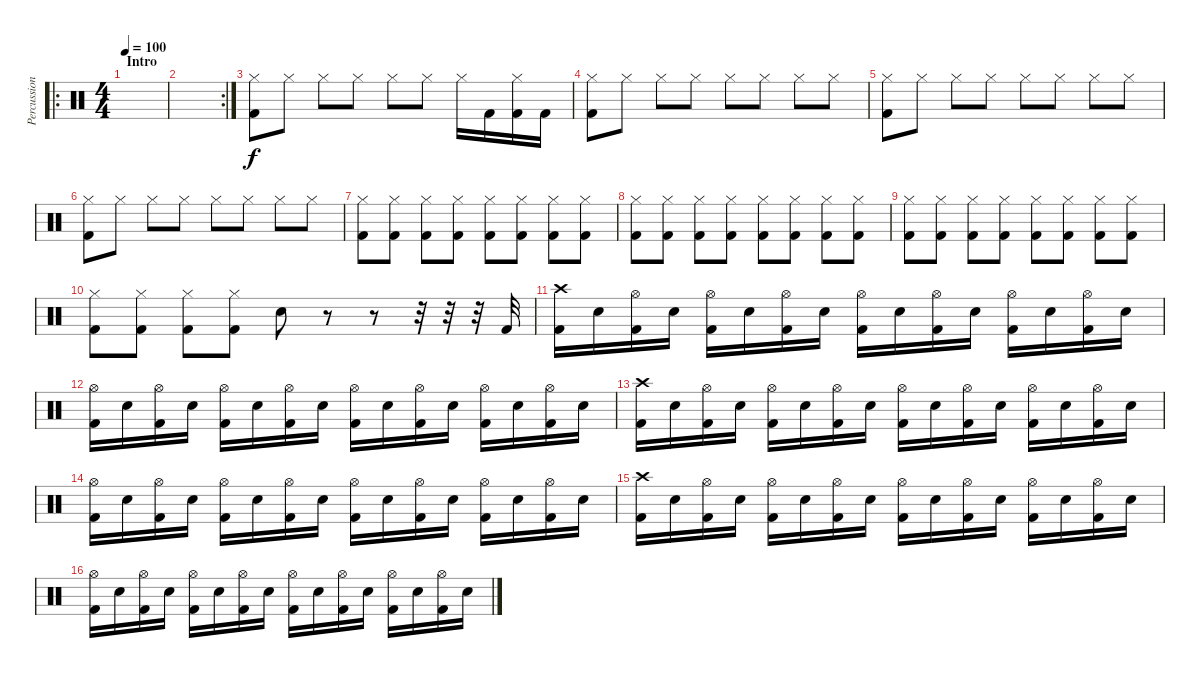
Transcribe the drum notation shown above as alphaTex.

\track ("Percussion" "Percussion") {instrument percussion}
\staff {score}
\articulation defaults
\ro
\ts (4 4)
\section ("" "Intro")
\tempo 100
\clef neutral
\ks c
|
\rc 2
|
("Hi-Hat (closed)" "Kick (hit) 2").8 "Hi-Hat (closed)".8 "Hi-Hat (closed)".8 "Hi-Hat (closed)".8 "Hi-Hat (closed)".8 "Hi-Hat (closed)".8 "Hi-Hat (closed)".16 "Kick (hit) 2".16 ("Hi-Hat (closed)" "Kick (hit) 2").16 "Kick (hit) 2".16 |
("Hi-Hat (closed)" "Kick (hit) 2").8 "Hi-Hat (closed)".8 "Hi-Hat (closed)".8 "Hi-Hat (closed)".8 "Hi-Hat (closed)".8 "Hi-Hat (closed)".8 "Hi-Hat (closed)".8 "Hi-Hat (closed)".8 |
("Hi-Hat (closed)" "Kick (hit) 2").8 "Hi-Hat (closed)".8 "Hi-Hat (closed)".8 "Hi-Hat (closed)".8 "Hi-Hat (closed)".8 "Hi-Hat (closed)".8 "Hi-Hat (closed)".8 "Hi-Hat (closed)".8 |
("Hi-Hat (closed)" "Kick (hit) 2").8 "Hi-Hat (closed)".8 "Hi-Hat (closed)".8 "Hi-Hat (closed)".8 "Hi-Hat (closed)".8 "Hi-Hat (closed)".8 "Hi-Hat (closed)".8 "Hi-Hat (closed)".8 |
("Hi-Hat (closed)" "Kick (hit) 2").8 ("Hi-Hat (closed)" "Kick (hit) 2").8 ("Hi-Hat (closed)" "Kick (hit) 2").8 ("Hi-Hat (closed)" "Kick (hit) 2").8 ("Hi-Hat (closed)" "Kick (hit) 2").8 ("Hi-Hat (closed)" "Kick (hit) 2").8 ("Hi-Hat (closed)" "Kick (hit) 2").8 ("Hi-Hat (closed)" "Kick (hit) 2").8 |
("Hi-Hat (closed)" "Kick (hit) 2").8 ("Hi-Hat (closed)" "Kick (hit) 2").8 ("Hi-Hat (closed)" "Kick (hit) 2").8 ("Hi-Hat (closed)" "Kick (hit) 2").8 ("Hi-Hat (closed)" "Kick (hit) 2").8 ("Hi-Hat (closed)" "Kick (hit) 2").8 ("Hi-Hat (closed)" "Kick (hit) 2").8 ("Hi-Hat (closed)" "Kick (hit) 2").8 |
("Hi-Hat (closed)" "Kick (hit) 2").8 ("Hi-Hat (closed)" "Kick (hit) 2").8 ("Hi-Hat (closed)" "Kick (hit) 2").8 ("Hi-Hat (closed)" "Kick (hit) 2").8 ("Hi-Hat (closed)" "Kick (hit) 2").8 ("Hi-Hat (closed)" "Kick (hit) 2").8 ("Hi-Hat (closed)" "Kick (hit) 2").8 ("Hi-Hat (closed)" "Kick (hit) 2").8 |
("Hi-Hat (closed)" "Kick (hit) 2").8 ("Hi-Hat (closed)" "Kick (hit) 2").8 ("Hi-Hat (closed)" "Kick (hit) 2").8 ("Hi-Hat (closed)" "Kick (hit) 2").8 "Snare (hit) 2".8 r.8 r.8 r.32 r.32 r.32 "Kick (hit) 2".32 |
("Crash high (hit)" "Kick (hit) 2").16 "Snare (hit) 2".16 ("Hi-Hat (open)" "Kick (hit) 2").16 "Snare (hit) 2".16 ("Hi-Hat (open)" "Kick (hit) 2").16 "Snare (hit) 2".16 ("Hi-Hat (open)" "Kick (hit) 2").16 "Snare (hit) 2".16 ("Hi-Hat (open)" "Kick (hit) 2").16 "Snare (hit) 2".16 ("Hi-Hat (open)" "Kick (hit) 2").16 "Snare (hit) 2".16 ("Hi-Hat (open)" "Kick (hit) 2").16 "Snare (hit) 2".16 ("Hi-Hat (open)" "Kick (hit) 2").16 "Snare (hit) 2".16 |
("Hi-Hat (open)" "Kick (hit) 2").16 "Snare (hit) 2".16 ("Hi-Hat (open)" "Kick (hit) 2").16 "Snare (hit) 2".16 ("Hi-Hat (open)" "Kick (hit) 2").16 "Snare (hit) 2".16 ("Hi-Hat (open)" "Kick (hit) 2").16 "Snare (hit) 2".16 ("Hi-Hat (open)" "Kick (hit) 2").16 "Snare (hit) 2".16 ("Hi-Hat (open)" "Kick (hit) 2").16 "Snare (hit) 2".16 ("Hi-Hat (open)" "Kick (hit) 2").16 "Snare (hit) 2".16 ("Hi-Hat (open)" "Kick (hit) 2").16 "Snare (hit) 2".16 |
("Crash high (hit)" "Kick (hit) 2").16 "Snare (hit) 2".16 ("Hi-Hat (open)" "Kick (hit) 2").16 "Snare (hit) 2".16 ("Hi-Hat (open)" "Kick (hit) 2").16 "Snare (hit) 2".16 ("Hi-Hat (open)" "Kick (hit) 2").16 "Snare (hit) 2".16 ("Hi-Hat (open)" "Kick (hit) 2").16 "Snare (hit) 2".16 ("Hi-Hat (open)" "Kick (hit) 2").16 "Snare (hit) 2".16 ("Hi-Hat (open)" "Kick (hit) 2").16 "Snare (hit) 2".16 ("Hi-Hat (open)" "Kick (hit) 2").16 "Snare (hit) 2".16 |
("Hi-Hat (open)" "Kick (hit) 2").16 "Snare (hit) 2".16 ("Hi-Hat (open)" "Kick (hit) 2").16 "Snare (hit) 2".16 ("Hi-Hat (open)" "Kick (hit) 2").16 "Snare (hit) 2".16 ("Hi-Hat (open)" "Kick (hit) 2").16 "Snare (hit) 2".16 ("Hi-Hat (open)" "Kick (hit) 2").16 "Snare (hit) 2".16 ("Hi-Hat (open)" "Kick (hit) 2").16 "Snare (hit) 2".16 ("Hi-Hat (open)" "Kick (hit) 2").16 "Snare (hit) 2".16 ("Hi-Hat (open)" "Kick (hit) 2").16 "Snare (hit) 2".16 |
("Crash high (hit)" "Kick (hit) 2").16 "Snare (hit) 2".16 ("Hi-Hat (open)" "Kick (hit) 2").16 "Snare (hit) 2".16 ("Hi-Hat (open)" "Kick (hit) 2").16 "Snare (hit) 2".16 ("Hi-Hat (open)" "Kick (hit) 2").16 "Snare (hit) 2".16 ("Hi-Hat (open)" "Kick (hit) 2").16 "Snare (hit) 2".16 ("Hi-Hat (open)" "Kick (hit) 2").16 "Snare (hit) 2".16 ("Hi-Hat (open)" "Kick (hit) 2").16 "Snare (hit) 2".16 ("Hi-Hat (open)" "Kick (hit) 2").16 "Snare (hit) 2".16 |
("Hi-Hat (open)" "Kick (hit) 2").16 "Snare (hit) 2".16 ("Hi-Hat (open)" "Kick (hit) 2").16 "Snare (hit) 2".16 ("Hi-Hat (open)" "Kick (hit) 2").16 "Snare (hit) 2".16 ("Hi-Hat (open)" "Kick (hit) 2").16 "Snare (hit) 2".16 ("Hi-Hat (open)" "Kick (hit) 2").16 "Snare (hit) 2".16 ("Hi-Hat (open)" "Kick (hit) 2").16 "Snare (hit) 2".16 ("Hi-Hat (open)" "Kick (hit) 2").16 "Snare (hit) 2".16 ("Hi-Hat (open)" "Kick (hit) 2").16 "Snare (hit) 2".16
